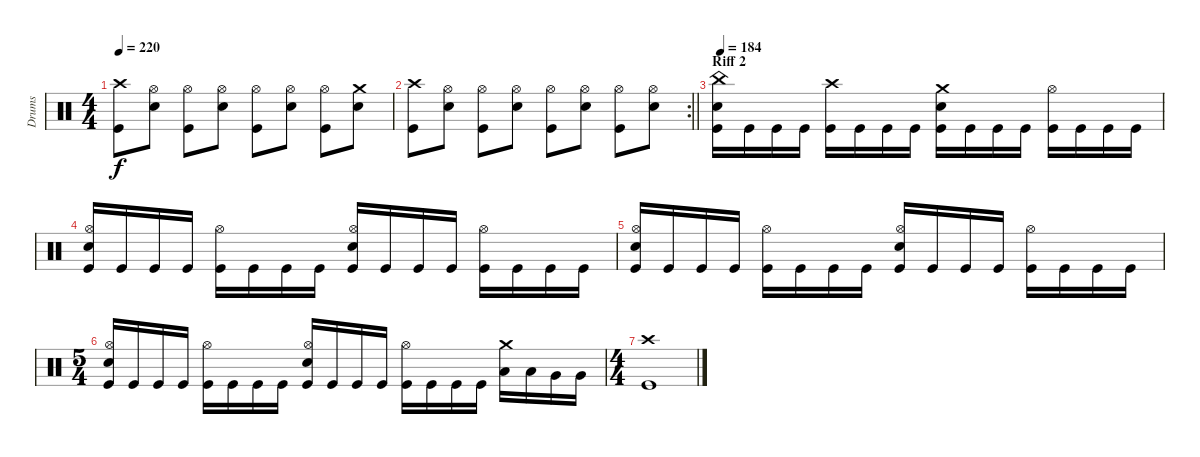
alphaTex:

\track ("Drums" "Drums") {instrument percussion}
\staff {score}
\articulation defaults
\ts (4 4)
\tempo 220
\clef neutral
\ks c
("Crash high (hit)" "Kick (hit)").8{dy f} ("Hi-Hat (open)" "Snare (hit) 2").8 ("Hi-Hat (open)" "Kick (hit)").8 ("Hi-Hat (open)" "Snare (hit) 2").8 ("Hi-Hat (open)" "Kick (hit)").8 ("Hi-Hat (open)" "Snare (hit) 2").8 ("Hi-Hat (open)" "Kick (hit)").8 ("Crash medium (hit)" "Snare (hit) 2").8 |
\rc 2
\barLineRight lightlight
("Crash high (hit)" "Kick (hit)").8 ("Hi-Hat (open)" "Snare (hit) 2").8 ("Hi-Hat (open)" "Kick (hit)").8 ("Hi-Hat (open)" "Snare (hit) 2").8 ("Hi-Hat (open)" "Kick (hit)").8 ("Hi-Hat (open)" "Snare (hit) 2").8 ("Hi-Hat (open)" "Kick (hit)").8 ("Hi-Hat (open)" "Snare (hit) 2").8 |
\section ("" "Riff 2")
\tempo 184
("China (hit)" "Snare (hit) 2" "Kick (hit)").16 "Kick (hit)".16 "Kick (hit)".16 "Kick (hit)".16 ("Crash high (hit)" "Kick (hit)").16 "Kick (hit)".16 "Kick (hit)".16 "Kick (hit)".16 ("Crash medium (hit)" "Snare (hit) 2" "Kick (hit)").16 "Kick (hit)".16 "Kick (hit)".16 "Kick (hit)".16 ("Hi-Hat (open)" "Kick (hit)").16 "Kick (hit)".16 "Kick (hit)".16 "Kick (hit)".16 |
("Hi-Hat (open)" "Snare (hit) 2" "Kick (hit)").16 "Kick (hit)".16 "Kick (hit)".16 "Kick (hit)".16 ("Hi-Hat (open)" "Kick (hit)").16 "Kick (hit)".16 "Kick (hit)".16 "Kick (hit)".16 ("Hi-Hat (open)" "Snare (hit) 2" "Kick (hit)").16 "Kick (hit)".16 "Kick (hit)".16 "Kick (hit)".16 ("Hi-Hat (open)" "Kick (hit)").16 "Kick (hit)".16 "Kick (hit)".16 "Kick (hit)".16 |
("Hi-Hat (open)" "Snare (hit) 2" "Kick (hit)").16 "Kick (hit)".16 "Kick (hit)".16 "Kick (hit)".16 ("Hi-Hat (open)" "Kick (hit)").16 "Kick (hit)".16 "Kick (hit)".16 "Kick (hit)".16 ("Hi-Hat (open)" "Snare (hit) 2" "Kick (hit)").16 "Kick (hit)".16 "Kick (hit)".16 "Kick (hit)".16 ("Hi-Hat (open)" "Kick (hit)").16 "Kick (hit)".16 "Kick (hit)".16 "Kick (hit)".16 |
\ts (5 4)
("Hi-Hat (open)" "Snare (hit) 2" "Kick (hit)").16 "Kick (hit)".16 "Kick (hit)".16 "Kick (hit)".16 ("Hi-Hat (open)" "Kick (hit)").16 "Kick (hit)".16 "Kick (hit)".16 "Kick (hit)".16 ("Hi-Hat (open)" "Snare (hit) 2" "Kick (hit)").16 "Kick (hit)".16 "Kick (hit)".16 "Kick (hit)".16 ("Hi-Hat (open)" "Kick (hit)").16 "Kick (hit)".16 "Kick (hit)".16 "Kick (hit)".16 ("Crash medium (hit)" "Low Tom (hit)").16 "Low Tom (hit)".16 "Very Low Tom (hit)".16 "Very Low Tom (hit)".16 |
\ts (4 4)
("Crash high (hit)" "Kick (hit)").1
